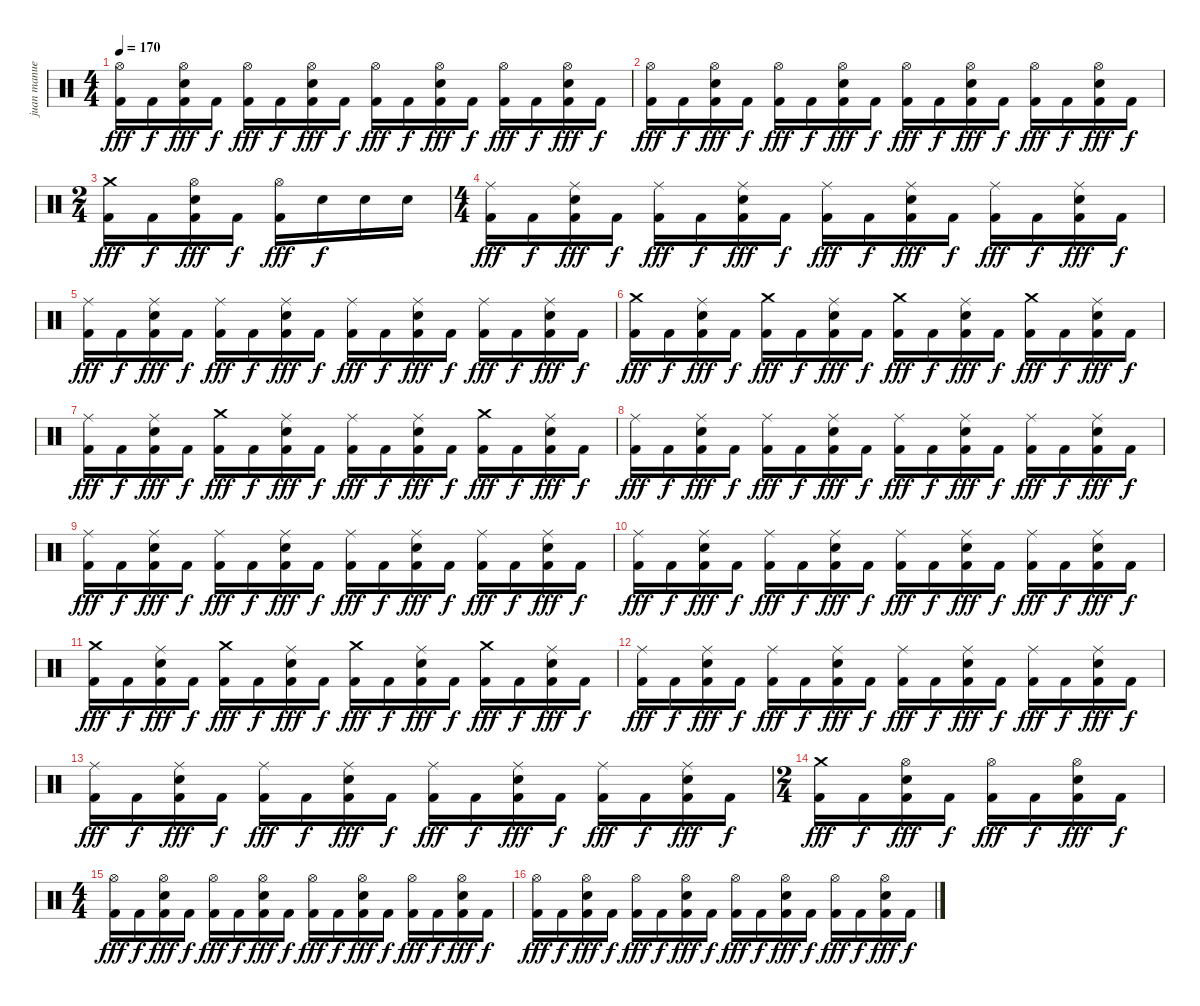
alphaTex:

\track ("juan manuel" "juan manue") {instrument percussion}
\staff {score}
\articulation defaults
\ts (4 4)
\tempo 170
\clef neutral
\ks c
("Hi-Hat (open)" "Kick (hit) 2").16{dy fff} "Kick (hit) 2".16{dy f} ("Hi-Hat (open)" "Electric Snare (hit)" "Kick (hit) 2").16{dy fff} "Kick (hit) 2".16{dy f} ("Hi-Hat (open)" "Kick (hit) 2").16{dy fff} "Kick (hit) 2".16{dy f} ("Hi-Hat (open)" "Electric Snare (hit)" "Kick (hit) 2").16{dy fff} "Kick (hit) 2".16{dy f} ("Hi-Hat (open)" "Kick (hit) 2").16{dy fff} "Kick (hit) 2".16{dy f} ("Hi-Hat (open)" "Electric Snare (hit)" "Kick (hit) 2").16{dy fff} "Kick (hit) 2".16{dy f} ("Hi-Hat (open)" "Kick (hit) 2").16{dy fff} "Kick (hit) 2".16{dy f} ("Hi-Hat (open)" "Electric Snare (hit)" "Kick (hit) 2").16{dy fff} "Kick (hit) 2".16{dy f} |
("Hi-Hat (open)" "Kick (hit) 2").16{dy fff} "Kick (hit) 2".16{dy f} ("Hi-Hat (open)" "Electric Snare (hit)" "Kick (hit) 2").16{dy fff} "Kick (hit) 2".16{dy f} ("Hi-Hat (open)" "Kick (hit) 2").16{dy fff} "Kick (hit) 2".16{dy f} ("Hi-Hat (open)" "Electric Snare (hit)" "Kick (hit) 2").16{dy fff} "Kick (hit) 2".16{dy f} ("Hi-Hat (open)" "Kick (hit) 2").16{dy fff} "Kick (hit) 2".16{dy f} ("Hi-Hat (open)" "Electric Snare (hit)" "Kick (hit) 2").16{dy fff} "Kick (hit) 2".16{dy f} ("Hi-Hat (open)" "Kick (hit) 2").16{dy fff} "Kick (hit) 2".16{dy f} ("Hi-Hat (open)" "Electric Snare (hit)" "Kick (hit) 2").16{dy fff} "Kick (hit) 2".16{dy f} |
\ts (2 4)
("Crash medium (hit)" "Kick (hit) 2").16{dy fff} "Kick (hit) 2".16{dy f} ("Hi-Hat (open)" "Electric Snare (hit)" "Kick (hit) 2").16{dy fff} "Kick (hit) 2".16{dy f} ("Hi-Hat (open)" "Kick (hit) 2").16{dy fff} "Electric Snare (hit)".16{dy f} "Electric Snare (hit)".16 "Electric Snare (hit)".16 |
\ts (4 4)
("Ride (middle)" "Kick (hit) 2").16{dy fff} "Kick (hit) 2".16{dy f} ("Ride (middle)" "Electric Snare (hit)" "Kick (hit) 2").16{dy fff} "Kick (hit) 2".16{dy f} ("Ride (middle)" "Kick (hit) 2").16{dy fff} "Kick (hit) 2".16{dy f} ("Ride (middle)" "Electric Snare (hit)" "Kick (hit) 2").16{dy fff} "Kick (hit) 2".16{dy f} ("Ride (middle)" "Kick (hit) 2").16{dy fff} "Kick (hit) 2".16{dy f} ("Ride (middle)" "Electric Snare (hit)" "Kick (hit) 2").16{dy fff} "Kick (hit) 2".16{dy f} ("Ride (middle)" "Kick (hit) 2").16{dy fff} "Kick (hit) 2".16{dy f} ("Ride (middle)" "Electric Snare (hit)" "Kick (hit) 2").16{dy fff} "Kick (hit) 2".16{dy f} |
("Ride (middle)" "Kick (hit) 2").16{dy fff} "Kick (hit) 2".16{dy f} ("Ride (middle)" "Electric Snare (hit)" "Kick (hit) 2").16{dy fff} "Kick (hit) 2".16{dy f} ("Ride (middle)" "Kick (hit) 2").16{dy fff} "Kick (hit) 2".16{dy f} ("Ride (middle)" "Electric Snare (hit)" "Kick (hit) 2").16{dy fff} "Kick (hit) 2".16{dy f} ("Ride (middle)" "Kick (hit) 2").16{dy fff} "Kick (hit) 2".16{dy f} ("Ride (middle)" "Electric Snare (hit)" "Kick (hit) 2").16{dy fff} "Kick (hit) 2".16{dy f} ("Ride (middle)" "Kick (hit) 2").16{dy fff} "Kick (hit) 2".16{dy f} ("Ride (middle)" "Electric Snare (hit)" "Kick (hit) 2").16{dy fff} "Kick (hit) 2".16{dy f} |
("Crash medium (hit)" "Kick (hit) 2").16{dy fff} "Kick (hit) 2".16{dy f} ("Ride (middle)" "Electric Snare (hit)" "Kick (hit) 2").16{dy fff} "Kick (hit) 2".16{dy f} ("Crash medium (hit)" "Kick (hit) 2").16{dy fff} "Kick (hit) 2".16{dy f} ("Ride (middle)" "Electric Snare (hit)" "Kick (hit) 2").16{dy fff} "Kick (hit) 2".16{dy f} ("Crash medium (hit)" "Kick (hit) 2").16{dy fff} "Kick (hit) 2".16{dy f} ("Ride (middle)" "Electric Snare (hit)" "Kick (hit) 2").16{dy fff} "Kick (hit) 2".16{dy f} ("Crash medium (hit)" "Kick (hit) 2").16{dy fff} "Kick (hit) 2".16{dy f} ("Ride (middle)" "Electric Snare (hit)" "Kick (hit) 2").16{dy fff} "Kick (hit) 2".16{dy f} |
("Ride (middle)" "Kick (hit) 2").16{dy fff} "Kick (hit) 2".16{dy f} ("Ride (middle)" "Electric Snare (hit)" "Kick (hit) 2").16{dy fff} "Kick (hit) 2".16{dy f} ("Crash medium (hit)" "Kick (hit) 2").16{dy fff} "Kick (hit) 2".16{dy f} ("Ride (middle)" "Electric Snare (hit)" "Kick (hit) 2").16{dy fff} "Kick (hit) 2".16{dy f} ("Ride (middle)" "Kick (hit) 2").16{dy fff} "Kick (hit) 2".16{dy f} ("Ride (middle)" "Electric Snare (hit)" "Kick (hit) 2").16{dy fff} "Kick (hit) 2".16{dy f} ("Crash medium (hit)" "Kick (hit) 2").16{dy fff} "Kick (hit) 2".16{dy f} ("Ride (middle)" "Electric Snare (hit)" "Kick (hit) 2").16{dy fff} "Kick (hit) 2".16{dy f} |
("Ride (middle)" "Kick (hit) 2").16{dy fff} "Kick (hit) 2".16{dy f} ("Ride (middle)" "Electric Snare (hit)" "Kick (hit) 2").16{dy fff} "Kick (hit) 2".16{dy f} ("Ride (middle)" "Kick (hit) 2").16{dy fff} "Kick (hit) 2".16{dy f} ("Ride (middle)" "Electric Snare (hit)" "Kick (hit) 2").16{dy fff} "Kick (hit) 2".16{dy f} ("Ride (middle)" "Kick (hit) 2").16{dy fff} "Kick (hit) 2".16{dy f} ("Ride (middle)" "Electric Snare (hit)" "Kick (hit) 2").16{dy fff} "Kick (hit) 2".16{dy f} ("Ride (middle)" "Kick (hit) 2").16{dy fff} "Kick (hit) 2".16{dy f} ("Ride (middle)" "Electric Snare (hit)" "Kick (hit) 2").16{dy fff} "Kick (hit) 2".16{dy f} |
("Ride (middle)" "Kick (hit) 2").16{dy fff} "Kick (hit) 2".16{dy f} ("Ride (middle)" "Electric Snare (hit)" "Kick (hit) 2").16{dy fff} "Kick (hit) 2".16{dy f} ("Ride (middle)" "Kick (hit) 2").16{dy fff} "Kick (hit) 2".16{dy f} ("Ride (middle)" "Electric Snare (hit)" "Kick (hit) 2").16{dy fff} "Kick (hit) 2".16{dy f} ("Ride (middle)" "Kick (hit) 2").16{dy fff} "Kick (hit) 2".16{dy f} ("Ride (middle)" "Electric Snare (hit)" "Kick (hit) 2").16{dy fff} "Kick (hit) 2".16{dy f} ("Ride (middle)" "Kick (hit) 2").16{dy fff} "Kick (hit) 2".16{dy f} ("Ride (middle)" "Electric Snare (hit)" "Kick (hit) 2").16{dy fff} "Kick (hit) 2".16{dy f} |
("Ride (middle)" "Kick (hit) 2").16{dy fff} "Kick (hit) 2".16{dy f} ("Ride (middle)" "Electric Snare (hit)" "Kick (hit) 2").16{dy fff} "Kick (hit) 2".16{dy f} ("Ride (middle)" "Kick (hit) 2").16{dy fff} "Kick (hit) 2".16{dy f} ("Ride (middle)" "Electric Snare (hit)" "Kick (hit) 2").16{dy fff} "Kick (hit) 2".16{dy f} ("Ride (middle)" "Kick (hit) 2").16{dy fff} "Kick (hit) 2".16{dy f} ("Ride (middle)" "Electric Snare (hit)" "Kick (hit) 2").16{dy fff} "Kick (hit) 2".16{dy f} ("Ride (middle)" "Kick (hit) 2").16{dy fff} "Kick (hit) 2".16{dy f} ("Ride (middle)" "Electric Snare (hit)" "Kick (hit) 2").16{dy fff} "Kick (hit) 2".16{dy f} |
("Crash medium (hit)" "Kick (hit) 2").16{dy fff} "Kick (hit) 2".16{dy f} ("Ride (middle)" "Electric Snare (hit)" "Kick (hit) 2").16{dy fff} "Kick (hit) 2".16{dy f} ("Crash medium (hit)" "Kick (hit) 2").16{dy fff} "Kick (hit) 2".16{dy f} ("Ride (middle)" "Electric Snare (hit)" "Kick (hit) 2").16{dy fff} "Kick (hit) 2".16{dy f} ("Crash medium (hit)" "Kick (hit) 2").16{dy fff} "Kick (hit) 2".16{dy f} ("Ride (middle)" "Electric Snare (hit)" "Kick (hit) 2").16{dy fff} "Kick (hit) 2".16{dy f} ("Crash medium (hit)" "Kick (hit) 2").16{dy fff} "Kick (hit) 2".16{dy f} ("Ride (middle)" "Electric Snare (hit)" "Kick (hit) 2").16{dy fff} "Kick (hit) 2".16{dy f} |
("Ride (middle)" "Kick (hit) 2").16{dy fff} "Kick (hit) 2".16{dy f} ("Ride (middle)" "Electric Snare (hit)" "Kick (hit) 2").16{dy fff} "Kick (hit) 2".16{dy f} ("Ride (middle)" "Kick (hit) 2").16{dy fff} "Kick (hit) 2".16{dy f} ("Ride (middle)" "Electric Snare (hit)" "Kick (hit) 2").16{dy fff} "Kick (hit) 2".16{dy f} ("Ride (middle)" "Kick (hit) 2").16{dy fff} "Kick (hit) 2".16{dy f} ("Ride (middle)" "Electric Snare (hit)" "Kick (hit) 2").16{dy fff} "Kick (hit) 2".16{dy f} ("Ride (middle)" "Kick (hit) 2").16{dy fff} "Kick (hit) 2".16{dy f} ("Ride (middle)" "Electric Snare (hit)" "Kick (hit) 2").16{dy fff} "Kick (hit) 2".16{dy f} |
("Ride (middle)" "Kick (hit) 2").16{dy fff} "Kick (hit) 2".16{dy f} ("Ride (middle)" "Electric Snare (hit)" "Kick (hit) 2").16{dy fff} "Kick (hit) 2".16{dy f} ("Ride (middle)" "Kick (hit) 2").16{dy fff} "Kick (hit) 2".16{dy f} ("Ride (middle)" "Electric Snare (hit)" "Kick (hit) 2").16{dy fff} "Kick (hit) 2".16{dy f} ("Ride (middle)" "Kick (hit) 2").16{dy fff} "Kick (hit) 2".16{dy f} ("Ride (middle)" "Electric Snare (hit)" "Kick (hit) 2").16{dy fff} "Kick (hit) 2".16{dy f} ("Ride (middle)" "Kick (hit) 2").16{dy fff} "Kick (hit) 2".16{dy f} ("Ride (middle)" "Electric Snare (hit)" "Kick (hit) 2").16{dy fff} "Kick (hit) 2".16{dy f} |
\ts (2 4)
("Crash medium (hit)" "Kick (hit) 2").16{dy fff} "Kick (hit) 2".16{dy f} ("Hi-Hat (open)" "Electric Snare (hit)" "Kick (hit) 2").16{dy fff} "Kick (hit) 2".16{dy f} ("Hi-Hat (open)" "Kick (hit) 2").16{dy fff} "Kick (hit) 2".16{dy f} ("Hi-Hat (open)" "Electric Snare (hit)" "Kick (hit) 2").16{dy fff} "Kick (hit) 2".16{dy f} |
\ts (4 4)
("Hi-Hat (open)" "Kick (hit) 2").16{dy fff} "Kick (hit) 2".16{dy f} ("Hi-Hat (open)" "Electric Snare (hit)" "Kick (hit) 2").16{dy fff} "Kick (hit) 2".16{dy f} ("Hi-Hat (open)" "Kick (hit) 2").16{dy fff} "Kick (hit) 2".16{dy f} ("Hi-Hat (open)" "Electric Snare (hit)" "Kick (hit) 2").16{dy fff} "Kick (hit) 2".16{dy f} ("Hi-Hat (open)" "Kick (hit) 2").16{dy fff} "Kick (hit) 2".16{dy f} ("Hi-Hat (open)" "Electric Snare (hit)" "Kick (hit) 2").16{dy fff} "Kick (hit) 2".16{dy f} ("Hi-Hat (open)" "Kick (hit) 2").16{dy fff} "Kick (hit) 2".16{dy f} ("Hi-Hat (open)" "Electric Snare (hit)" "Kick (hit) 2").16{dy fff} "Kick (hit) 2".16{dy f} |
("Hi-Hat (open)" "Kick (hit) 2").16{dy fff} "Kick (hit) 2".16{dy f} ("Hi-Hat (open)" "Electric Snare (hit)" "Kick (hit) 2").16{dy fff} "Kick (hit) 2".16{dy f} ("Hi-Hat (open)" "Kick (hit) 2").16{dy fff} "Kick (hit) 2".16{dy f} ("Hi-Hat (open)" "Electric Snare (hit)" "Kick (hit) 2").16{dy fff} "Kick (hit) 2".16{dy f} ("Hi-Hat (open)" "Kick (hit) 2").16{dy fff} "Kick (hit) 2".16{dy f} ("Hi-Hat (open)" "Electric Snare (hit)" "Kick (hit) 2").16{dy fff} "Kick (hit) 2".16{dy f} ("Hi-Hat (open)" "Kick (hit) 2").16{dy fff} "Kick (hit) 2".16{dy f} ("Hi-Hat (open)" "Electric Snare (hit)" "Kick (hit) 2").16{dy fff} "Kick (hit) 2".16{dy f}
